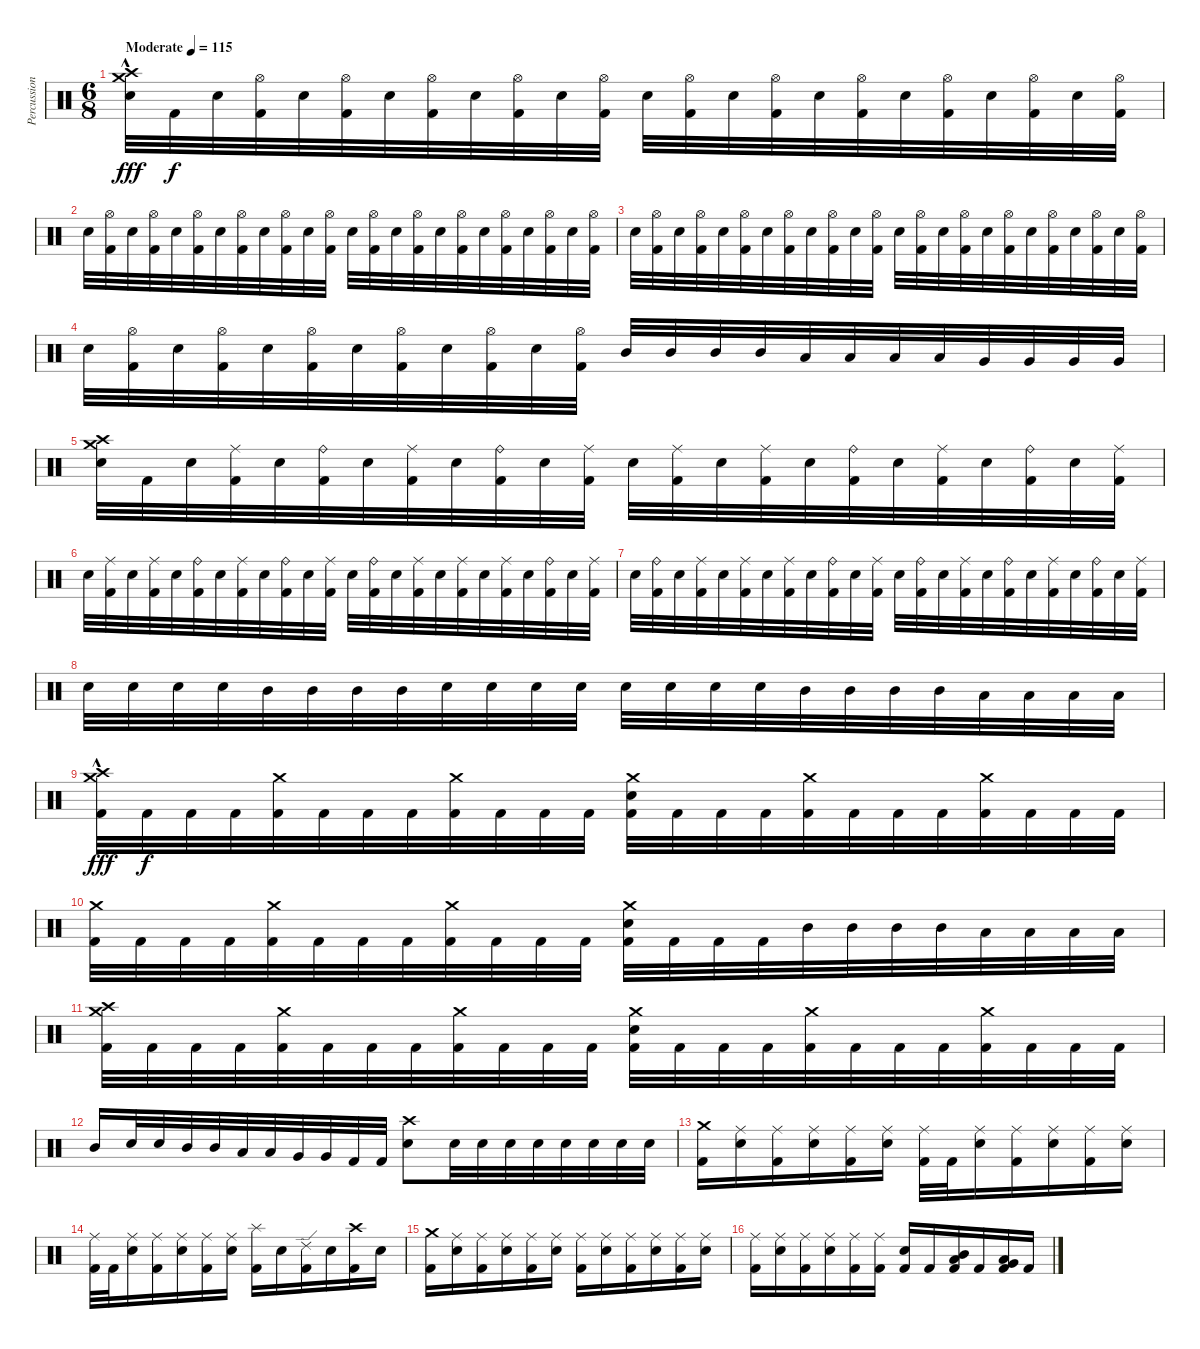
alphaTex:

\track ("Percussion" "Percussion") {instrument percussion}
\staff {score}
\articulation defaults
\ts (6 8)
\tempo (115 "Moderate")
\clef neutral
\ks c
("Crash medium (hit)"{hac} "Crash high (hit)"{hac} "Electric Snare (hit)").32{dy fff} "Kick (hit) 2".32{dy f} "Electric Snare (hit)".32 ("Hi-Hat (open)" "Kick (hit) 2").32 "Electric Snare (hit)".32 ("Hi-Hat (open)" "Kick (hit) 2").32 "Electric Snare (hit)".32 ("Hi-Hat (open)" "Kick (hit) 2").32 "Electric Snare (hit)".32 ("Hi-Hat (open)" "Kick (hit) 2").32 "Electric Snare (hit)".32 ("Hi-Hat (open)" "Kick (hit) 2").32 "Electric Snare (hit)".32 ("Hi-Hat (open)" "Kick (hit) 2").32 "Electric Snare (hit)".32 ("Hi-Hat (open)" "Kick (hit) 2").32 "Electric Snare (hit)".32 ("Hi-Hat (open)" "Kick (hit) 2").32 "Electric Snare (hit)".32 ("Hi-Hat (open)" "Kick (hit) 2").32 "Electric Snare (hit)".32 ("Hi-Hat (open)" "Kick (hit) 2").32 "Electric Snare (hit)".32 ("Hi-Hat (open)" "Kick (hit) 2").32 |
"Electric Snare (hit)".32 ("Hi-Hat (open)" "Kick (hit) 2").32 "Electric Snare (hit)".32 ("Hi-Hat (open)" "Kick (hit) 2").32 "Electric Snare (hit)".32 ("Hi-Hat (open)" "Kick (hit) 2").32 "Electric Snare (hit)".32 ("Hi-Hat (open)" "Kick (hit) 2").32 "Electric Snare (hit)".32 ("Hi-Hat (open)" "Kick (hit) 2").32 "Electric Snare (hit)".32 ("Hi-Hat (open)" "Kick (hit) 2").32 "Electric Snare (hit)".32 ("Hi-Hat (open)" "Kick (hit) 2").32 "Electric Snare (hit)".32 ("Hi-Hat (open)" "Kick (hit) 2").32 "Electric Snare (hit)".32 ("Hi-Hat (open)" "Kick (hit) 2").32 "Electric Snare (hit)".32 ("Hi-Hat (open)" "Kick (hit) 2").32 "Electric Snare (hit)".32 ("Hi-Hat (open)" "Kick (hit) 2").32 "Electric Snare (hit)".32 ("Hi-Hat (open)" "Kick (hit) 2").32 |
"Electric Snare (hit)".32 ("Hi-Hat (open)" "Kick (hit) 2").32 "Electric Snare (hit)".32 ("Hi-Hat (open)" "Kick (hit) 2").32 "Electric Snare (hit)".32 ("Hi-Hat (open)" "Kick (hit) 2").32 "Electric Snare (hit)".32 ("Hi-Hat (open)" "Kick (hit) 2").32 "Electric Snare (hit)".32 ("Hi-Hat (open)" "Kick (hit) 2").32 "Electric Snare (hit)".32 ("Hi-Hat (open)" "Kick (hit) 2").32 "Electric Snare (hit)".32 ("Hi-Hat (open)" "Kick (hit) 2").32 "Electric Snare (hit)".32 ("Hi-Hat (open)" "Kick (hit) 2").32 "Electric Snare (hit)".32 ("Hi-Hat (open)" "Kick (hit) 2").32 "Electric Snare (hit)".32 ("Hi-Hat (open)" "Kick (hit) 2").32 "Electric Snare (hit)".32 ("Hi-Hat (open)" "Kick (hit) 2").32 "Electric Snare (hit)".32 ("Hi-Hat (open)" "Kick (hit) 2").32 |
"Electric Snare (hit)".32 ("Hi-Hat (open)" "Kick (hit) 2").32 "Electric Snare (hit)".32 ("Hi-Hat (open)" "Kick (hit) 2").32 "Electric Snare (hit)".32 ("Hi-Hat (open)" "Kick (hit) 2").32 "Electric Snare (hit)".32 ("Hi-Hat (open)" "Kick (hit) 2").32 "Electric Snare (hit)".32 ("Hi-Hat (open)" "Kick (hit) 2").32 "Electric Snare (hit)".32 ("Hi-Hat (open)" "Kick (hit) 2").32 "Mid Tom (hit)".32 "Mid Tom (hit)".32 "Mid Tom (hit)".32 "Mid Tom (hit)".32 "Low Tom (hit)".32 "Low Tom (hit)".32 "Low Tom (hit)".32 "Low Tom (hit)".32 "Very Low Tom (hit)".32 "Very Low Tom (hit)".32 "Very Low Tom (hit)".32 "Very Low Tom (hit)".32 |
("Crash medium (hit)" "Crash high (hit)" "Electric Snare (hit)").32 "Kick (hit) 2".32 "Electric Snare (hit)".32 ("Ride (middle)" "Kick (hit) 2").32 "Electric Snare (hit)".32 ("Ride (bell)" "Kick (hit) 2").32 "Electric Snare (hit)".32 ("Ride (middle)" "Kick (hit) 2").32 "Electric Snare (hit)".32 ("Ride (bell)" "Kick (hit) 2").32 "Electric Snare (hit)".32 ("Ride (middle)" "Kick (hit) 2").32 "Electric Snare (hit)".32 ("Ride (middle)" "Kick (hit) 2").32 "Electric Snare (hit)".32 ("Ride (middle)" "Kick (hit) 2").32 "Electric Snare (hit)".32 ("Ride (bell)" "Kick (hit) 2").32 "Electric Snare (hit)".32 ("Ride (middle)" "Kick (hit) 2").32 "Electric Snare (hit)".32 ("Ride (bell)" "Kick (hit) 2").32 "Electric Snare (hit)".32 ("Ride (middle)" "Kick (hit) 2").32 |
"Electric Snare (hit)".32 ("Ride (middle)" "Kick (hit) 2").32 "Electric Snare (hit)".32 ("Ride (middle)" "Kick (hit) 2").32 "Electric Snare (hit)".32 ("Ride (bell)" "Kick (hit) 2").32 "Electric Snare (hit)".32 ("Ride (middle)" "Kick (hit) 2").32 "Electric Snare (hit)".32 ("Ride (bell)" "Kick (hit) 2").32 "Electric Snare (hit)".32 ("Ride (middle)" "Kick (hit) 2").32 "Electric Snare (hit)".32 ("Ride (bell)" "Kick (hit) 2").32 "Electric Snare (hit)".32 ("Ride (middle)" "Kick (hit) 2").32 "Electric Snare (hit)".32 ("Ride (middle)" "Kick (hit) 2").32 "Electric Snare (hit)".32 ("Ride (middle)" "Kick (hit) 2").32 "Electric Snare (hit)".32 ("Ride (bell)" "Kick (hit) 2").32 "Electric Snare (hit)".32 ("Ride (middle)" "Kick (hit) 2").32 |
"Electric Snare (hit)".32 ("Ride (bell)" "Kick (hit) 2").32 "Electric Snare (hit)".32 ("Ride (middle)" "Kick (hit) 2").32 "Electric Snare (hit)".32 ("Ride (middle)" "Kick (hit) 2").32 "Electric Snare (hit)".32 ("Ride (middle)" "Kick (hit) 2").32 "Electric Snare (hit)".32 ("Ride (bell)" "Kick (hit) 2").32 "Electric Snare (hit)".32 ("Ride (middle)" "Kick (hit) 2").32 "Electric Snare (hit)".32 ("Ride (bell)" "Kick (hit) 2").32 "Electric Snare (hit)".32 ("Ride (middle)" "Kick (hit) 2").32 "Electric Snare (hit)".32 ("Ride (bell)" "Kick (hit) 2").32 "Electric Snare (hit)".32 ("Ride (middle)" "Kick (hit) 2").32 "Electric Snare (hit)".32 ("Ride (bell)" "Kick (hit) 2").32 "Electric Snare (hit)".32 ("Ride (middle)" "Kick (hit) 2").32 |
"Electric Snare (hit)".32 "Electric Snare (hit)".32 "Electric Snare (hit)".32 "Electric Snare (hit)".32 "Mid Tom (hit)".32 "Mid Tom (hit)".32 "Mid Tom (hit)".32 "Mid Tom (hit)".32 "Electric Snare (hit)".32 "Electric Snare (hit)".32 "Electric Snare (hit)".32 "Electric Snare (hit)".32 "Electric Snare (hit)".32 "Electric Snare (hit)".32 "Electric Snare (hit)".32 "Electric Snare (hit)".32 "Mid Tom (hit)".32 "Mid Tom (hit)".32 "Mid Tom (hit)".32 "Mid Tom (hit)".32 "Low Tom (hit)".32 "Low Tom (hit)".32 "Low Tom (hit)".32 "Low Tom (hit)".32 |
("Crash medium (hit)"{hac} "Crash high (hit)"{hac} "Kick (hit) 2"{hac}).32{dy fff} "Kick (hit) 2".32{dy f} "Kick (hit) 2".32 "Kick (hit) 2".32 ("Crash medium (hit)" "Kick (hit) 2").32 "Kick (hit) 2".32 "Kick (hit) 2".32 "Kick (hit) 2".32 ("Crash medium (hit)" "Kick (hit) 2").32 "Kick (hit) 2".32 "Kick (hit) 2".32 "Kick (hit) 2".32 ("Crash medium (hit)" "Electric Snare (hit)" "Kick (hit) 2").32 "Kick (hit) 2".32 "Kick (hit) 2".32 "Kick (hit) 2".32 ("Crash medium (hit)" "Kick (hit) 2").32 "Kick (hit) 2".32 "Kick (hit) 2".32 "Kick (hit) 2".32 ("Crash medium (hit)" "Kick (hit) 2").32 "Kick (hit) 2".32 "Kick (hit) 2".32 "Kick (hit) 2".32 |
("Crash medium (hit)" "Kick (hit) 2").32 "Kick (hit) 2".32 "Kick (hit) 2".32 "Kick (hit) 2".32 ("Crash medium (hit)" "Kick (hit) 2").32 "Kick (hit) 2".32 "Kick (hit) 2".32 "Kick (hit) 2".32 ("Crash medium (hit)" "Kick (hit) 2").32 "Kick (hit) 2".32 "Kick (hit) 2".32 "Kick (hit) 2".32 ("Crash medium (hit)" "Electric Snare (hit)" "Kick (hit) 2").32 "Kick (hit) 2".32 "Kick (hit) 2".32 "Kick (hit) 2".32 "Mid Tom (hit)".32 "Mid Tom (hit)".32 "Mid Tom (hit)".32 "Mid Tom (hit)".32 "Low Tom (hit)".32 "Low Tom (hit)".32 "Low Tom (hit)".32 "Low Tom (hit)".32 |
("Crash medium (hit)" "Crash high (hit)" "Kick (hit) 2").32 "Kick (hit) 2".32 "Kick (hit) 2".32 "Kick (hit) 2".32 ("Crash medium (hit)" "Kick (hit) 2").32 "Kick (hit) 2".32 "Kick (hit) 2".32 "Kick (hit) 2".32 ("Crash medium (hit)" "Kick (hit) 2").32 "Kick (hit) 2".32 "Kick (hit) 2".32 "Kick (hit) 2".32 ("Crash medium (hit)" "Electric Snare (hit)" "Kick (hit) 2").32 "Kick (hit) 2".32 "Kick (hit) 2".32 "Kick (hit) 2".32 ("Crash medium (hit)" "Kick (hit) 2").32 "Kick (hit) 2".32 "Kick (hit) 2".32 "Kick (hit) 2".32 ("Crash medium (hit)" "Kick (hit) 2").32 "Kick (hit) 2".32 "Kick (hit) 2".32 "Kick (hit) 2".32 |
"Mid Tom (hit)".16 "Electric Snare (hit)".32 "Electric Snare (hit)".32 "Mid Tom (hit)".32 "Mid Tom (hit)".32 "Low Tom (hit)".32 "Low Tom (hit)".32 "Very Low Tom (hit)".32 "Very Low Tom (hit)".32 "Kick (hit) 2".32 "Kick (hit) 2".32 ("Crash high (hit)" "Electric Snare (hit)").8 "Electric Snare (hit)".32 "Electric Snare (hit)".32 "Electric Snare (hit)".32 "Electric Snare (hit)".32 "Electric Snare (hit)".32 "Electric Snare (hit)".32 "Electric Snare (hit)".32 "Electric Snare (hit)".32 |
("Crash medium (hit)" "Kick (hit) 2").16 ("Ride (middle)" "Electric Snare (hit)").16 ("Ride (middle)" "Kick (hit) 2").16 ("Ride (middle)" "Electric Snare (hit)").16 ("Ride (middle)" "Kick (hit) 2").16 ("Ride (middle)" "Electric Snare (hit)").16 ("Ride (middle)" "Kick (hit) 2").32 "Kick (hit) 2".32 ("Ride (middle)" "Electric Snare (hit)").16 ("Ride (middle)" "Kick (hit) 2").16 ("Ride (middle)" "Electric Snare (hit)").16 ("Ride (middle)" "Kick (hit) 2").16 ("Ride (middle)" "Electric Snare (hit)").16 |
("Ride (middle)" "Kick (hit) 2").32 "Kick (hit) 2".32 ("Ride (middle)" "Electric Snare (hit)").16 ("Ride (middle)" "Kick (hit) 2").16 ("Ride (middle)" "Electric Snare (hit)").16 ("Ride (middle)" "Kick (hit) 2").16 ("Ride (middle)" "Electric Snare (hit)").16 ("Splash (hit)" "Kick (hit) 2").16 "Electric Snare (hit)".16 ("Ride (edge) 2" "Kick (hit) 2").16 "Electric Snare (hit)".16 ("Crash high (hit)" "Kick (hit) 2").16 "Electric Snare (hit)".16 |
("Crash medium (hit)" "Kick (hit) 2").16 ("Ride (middle)" "Electric Snare (hit)").16 ("Ride (middle)" "Kick (hit) 2").16 ("Ride (middle)" "Electric Snare (hit)").16 ("Ride (middle)" "Kick (hit) 2").16 ("Ride (middle)" "Electric Snare (hit)").16 ("Ride (middle)" "Kick (hit) 2").16 ("Ride (middle)" "Electric Snare (hit)").16 ("Ride (middle)" "Kick (hit) 2").16 ("Ride (middle)" "Electric Snare (hit)").16 ("Ride (middle)" "Kick (hit) 2").16 ("Ride (middle)" "Electric Snare (hit)").16 |
("Ride (middle)" "Kick (hit) 2").16 ("Ride (middle)" "Electric Snare (hit)").16 ("Ride (middle)" "Kick (hit) 2").16 ("Ride (middle)" "Electric Snare (hit)").16 ("Ride (middle)" "Kick (hit) 2").16 ("Ride (middle)" "Kick (hit) 2").16 ("Electric Snare (hit)" "Kick (hit) 2").16 "Kick (hit) 2".16 ("Low Tom (hit)" "Mid Tom (hit)" "Kick (hit) 2").16 "Kick (hit) 2".16 ("Low Tom (hit)" "Very Low Tom (hit)" "Kick (hit) 2").16 "Kick (hit) 2".16
